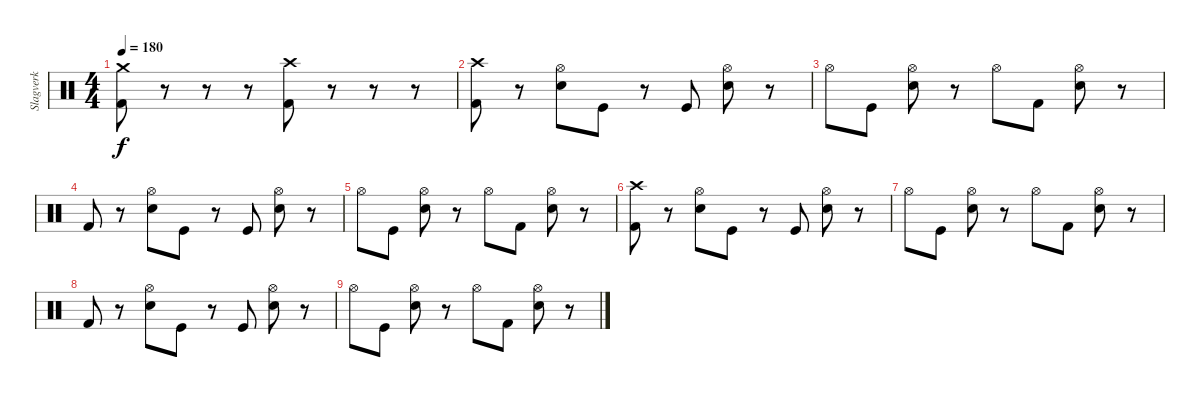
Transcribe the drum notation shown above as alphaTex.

\track ("Slagverk" "Slagverk") {instrument percussion}
\staff {score}
\articulation defaults
\ts (4 4)
\tempo 180
\clef neutral
\ks c
("Crash medium (hit)" "Kick (hit) 2").8{dy f} r.8 r.8 r.8 ("Crash high (hit)" "Kick (hit) 2").8 r.8 r.8 r.8 |
("Crash high (hit)" "Kick (hit) 2").8 r.8 ("Hi-Hat (open)" "Electric Snare (hit)").8 "Kick (hit)".8 r.8 "Kick (hit)".8 ("Hi-Hat (open)" "Electric Snare (hit)").8 r.8 |
"Hi-Hat (open)".8 "Kick (hit)".8 ("Hi-Hat (open)" "Electric Snare (hit)").8 r.8 "Hi-Hat (open)".8 "Kick (hit) 2".8 ("Hi-Hat (open)" "Electric Snare (hit)").8 r.8 |
"Kick (hit) 2".8 r.8 ("Hi-Hat (open)" "Electric Snare (hit)").8 "Kick (hit)".8 r.8 "Kick (hit)".8 ("Hi-Hat (open)" "Electric Snare (hit)").8 r.8 |
"Hi-Hat (open)".8 "Kick (hit)".8 ("Hi-Hat (open)" "Electric Snare (hit)").8 r.8 "Hi-Hat (open)".8 "Kick (hit) 2".8 ("Hi-Hat (open)" "Electric Snare (hit)").8 r.8 |
("Crash high (hit)" "Kick (hit) 2").8 r.8 ("Hi-Hat (open)" "Electric Snare (hit)").8 "Kick (hit)".8 r.8 "Kick (hit)".8 ("Hi-Hat (open)" "Electric Snare (hit)").8 r.8 |
"Hi-Hat (open)".8 "Kick (hit)".8 ("Hi-Hat (open)" "Electric Snare (hit)").8 r.8 "Hi-Hat (open)".8 "Kick (hit) 2".8 ("Hi-Hat (open)" "Electric Snare (hit)").8 r.8 |
"Kick (hit) 2".8 r.8 ("Hi-Hat (open)" "Electric Snare (hit)").8 "Kick (hit)".8 r.8 "Kick (hit)".8 ("Hi-Hat (open)" "Electric Snare (hit)").8 r.8 |
"Hi-Hat (open)".8 "Kick (hit)".8 ("Hi-Hat (open)" "Electric Snare (hit)").8 r.8 "Hi-Hat (open)".8 "Kick (hit) 2".8 ("Hi-Hat (open)" "Electric Snare (hit)").8 r.8
